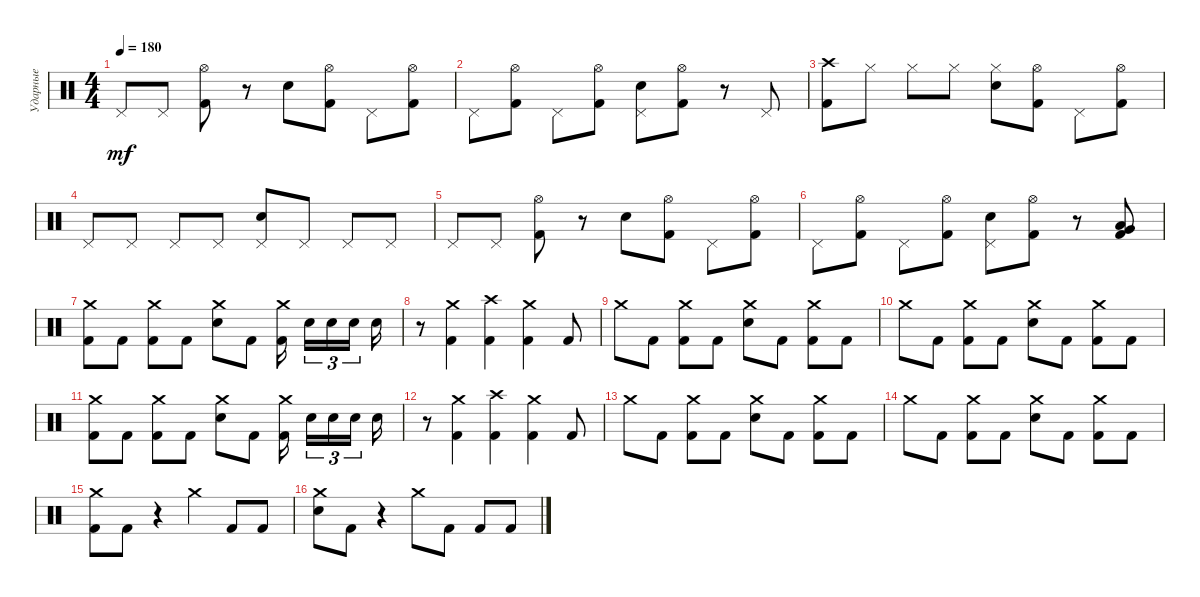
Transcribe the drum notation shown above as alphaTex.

\track ("Ударные" "Ударные") {instrument percussion}
\staff {score}
\articulation defaults
\ts (4 4)
\tempo 180
\clef neutral
\ks c "Pedal Hi-Hat (hit)".8{dy mf} "Pedal Hi-Hat (hit)".8
("Hi-Hat (open)" "Kick (hit) 2").8 r.8 "Electric Snare (hit)".8 ("Hi-Hat (open)" "Kick (hit) 2").8 "Pedal Hi-Hat (hit)".8 ("Hi-Hat (open)" "Kick (hit) 2").8 |
"Pedal Hi-Hat (hit)".8 ("Hi-Hat (open)" "Kick (hit) 2").8 "Pedal Hi-Hat (hit)".8 ("Hi-Hat (open)" "Kick (hit) 2").8 ("Pedal Hi-Hat (hit)" "Electric Snare (hit)").8 ("Hi-Hat (open)" "Kick (hit) 2").8 r.8 "Pedal Hi-Hat (hit)".8 |
("Crash high (hit)" "Kick (hit) 2").8 "Hi-Hat (closed)".8 "Hi-Hat (closed)".8 "Hi-Hat (closed)".8 ("Hi-Hat (closed)" "Electric Snare (hit)").8 ("Hi-Hat (open)" "Kick (hit) 2").8 "Pedal Hi-Hat (hit)".8 ("Hi-Hat (open)" "Kick (hit) 2").8 |
"Pedal Hi-Hat (hit)".8 "Pedal Hi-Hat (hit)".8 "Pedal Hi-Hat (hit)".8 "Pedal Hi-Hat (hit)".8 ("Pedal Hi-Hat (hit)" "Electric Snare (hit)").8 "Pedal Hi-Hat (hit)".8 "Pedal Hi-Hat (hit)".8 "Pedal Hi-Hat (hit)".8 |
"Pedal Hi-Hat (hit)".8 "Pedal Hi-Hat (hit)".8 ("Hi-Hat (open)" "Kick (hit) 2").8 r.8 "Electric Snare (hit)".8 ("Hi-Hat (open)" "Kick (hit) 2").8 "Pedal Hi-Hat (hit)".8 ("Hi-Hat (open)" "Kick (hit) 2").8 |
"Pedal Hi-Hat (hit)".8 ("Hi-Hat (open)" "Kick (hit) 2").8 "Pedal Hi-Hat (hit)".8 ("Hi-Hat (open)" "Kick (hit) 2").8 ("Pedal Hi-Hat (hit)" "Electric Snare (hit)").8 ("Hi-Hat (open)" "Kick (hit) 2").8 r.8 ("Low Tom (hit)" "Very Low Tom (hit)" "Kick (hit) 2").8 |
("Crash medium (hit)" "Kick (hit) 2").8 "Kick (hit) 2".8 ("Crash medium (hit)" "Kick (hit) 2").8 "Kick (hit) 2".8 ("Crash medium (hit)" "Electric Snare (hit)").8 "Kick (hit) 2".8 ("Crash medium (hit)" "Kick (hit) 2").16{beam splitsecondary} "Electric Snare (hit)".16{tu (3 2)} "Electric Snare (hit)".16{tu (3 2)} "Electric Snare (hit)".16{tu (3 2) beam splitsecondary} "Electric Snare (hit)".16 |
r.8 ("Crash medium (hit)" "Kick (hit) 2").4 ("Crash high (hit)" "Kick (hit) 2").4 ("Crash medium (hit)" "Kick (hit) 2").4 "Kick (hit) 2".8 |
"Crash medium (hit)".8 "Kick (hit) 2".8 ("Crash medium (hit)" "Kick (hit) 2").8 "Kick (hit) 2".8 ("Crash medium (hit)" "Electric Snare (hit)").8 "Kick (hit) 2".8 ("Crash medium (hit)" "Kick (hit) 2").8 "Kick (hit) 2".8 |
"Crash medium (hit)".8 "Kick (hit) 2".8 ("Crash medium (hit)" "Kick (hit) 2").8 "Kick (hit) 2".8 ("Crash medium (hit)" "Electric Snare (hit)").8 "Kick (hit) 2".8 ("Crash medium (hit)" "Kick (hit) 2").8 "Kick (hit) 2".8 |
("Crash medium (hit)" "Kick (hit) 2").8 "Kick (hit) 2".8 ("Crash medium (hit)" "Kick (hit) 2").8 "Kick (hit) 2".8 ("Crash medium (hit)" "Electric Snare (hit)").8 "Kick (hit) 2".8 ("Crash medium (hit)" "Kick (hit) 2").16{beam splitsecondary} "Electric Snare (hit)".16{tu (3 2)} "Electric Snare (hit)".16{tu (3 2)} "Electric Snare (hit)".16{tu (3 2) beam splitsecondary} "Electric Snare (hit)".16 |
r.8 ("Crash medium (hit)" "Kick (hit) 2").4 ("Crash high (hit)" "Kick (hit) 2").4 ("Crash medium (hit)" "Kick (hit) 2").4 "Kick (hit) 2".8 |
"Crash medium (hit)".8 "Kick (hit) 2".8 ("Crash medium (hit)" "Kick (hit) 2").8 "Kick (hit) 2".8 ("Crash medium (hit)" "Electric Snare (hit)").8 "Kick (hit) 2".8 ("Crash medium (hit)" "Kick (hit) 2").8 "Kick (hit) 2".8 |
"Crash medium (hit)".8 "Kick (hit) 2".8 ("Crash medium (hit)" "Kick (hit) 2").8 "Kick (hit) 2".8 ("Crash medium (hit)" "Electric Snare (hit)").8 "Kick (hit) 2".8 ("Crash medium (hit)" "Kick (hit) 2").8 "Kick (hit) 2".8 |
("Crash medium (hit)" "Kick (hit) 2").8 "Kick (hit) 2".8 r.4 "Crash medium (hit)".4 "Kick (hit) 2".8 "Kick (hit) 2".8 |
("Crash medium (hit)" "Electric Snare (hit)").8 "Kick (hit) 2".8 r.4 "Crash medium (hit)".8 "Kick (hit) 2".8 "Kick (hit) 2".8 "Kick (hit) 2".8
